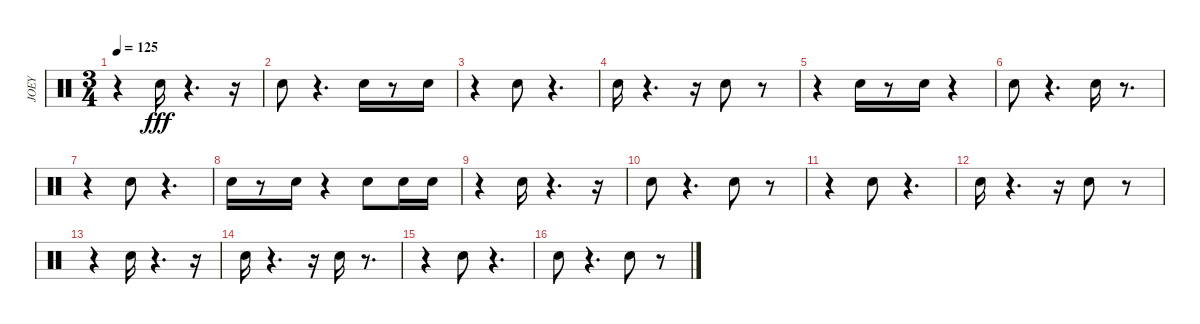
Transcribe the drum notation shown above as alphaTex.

\track ("JOEY" "JOEY") {instrument percussion}
\staff {score}
\articulation defaults
\ts (3 4)
\tempo 125
\clef neutral
\ks c
r.4{dy fff} "Snare (hit) 2".16 r.4{d} r.16 |
"Snare (hit) 2".8 r.4{d} "Snare (hit) 2".16 r.8 "Snare (hit) 2".16 |
r.4 "Snare (hit) 2".8 r.4{d} |
"Snare (hit) 2".16 r.4{d} r.16 "Snare (hit) 2".8 r.8 |
r.4 "Snare (hit) 2".16 r.8 "Snare (hit) 2".16 r.4 |
"Snare (hit) 2".8 r.4{d} "Snare (hit) 2".16 r.8{d} |
r.4 "Snare (hit) 2".8 r.4{d} |
"Snare (hit) 2".16 r.8 "Snare (hit) 2".16 r.4 "Snare (hit) 2".8 "Snare (hit) 2".16 "Snare (hit) 2".16 |
r.4 "Snare (hit) 2".16 r.4{d} r.16 |
"Snare (hit) 2".8 r.4{d} "Snare (hit) 2".8 r.8 |
r.4 "Snare (hit) 2".8 r.4{d} |
"Snare (hit) 2".16 r.4{d} r.16 "Snare (hit) 2".8 r.8 |
r.4 "Snare (hit) 2".16 r.4{d} r.16 |
"Snare (hit) 2".16 r.4{d} r.16 "Snare (hit) 2".16 r.8{d} |
r.4 "Snare (hit) 2".8 r.4{d} |
"Snare (hit) 2".8 r.4{d} "Snare (hit) 2".8 r.8
